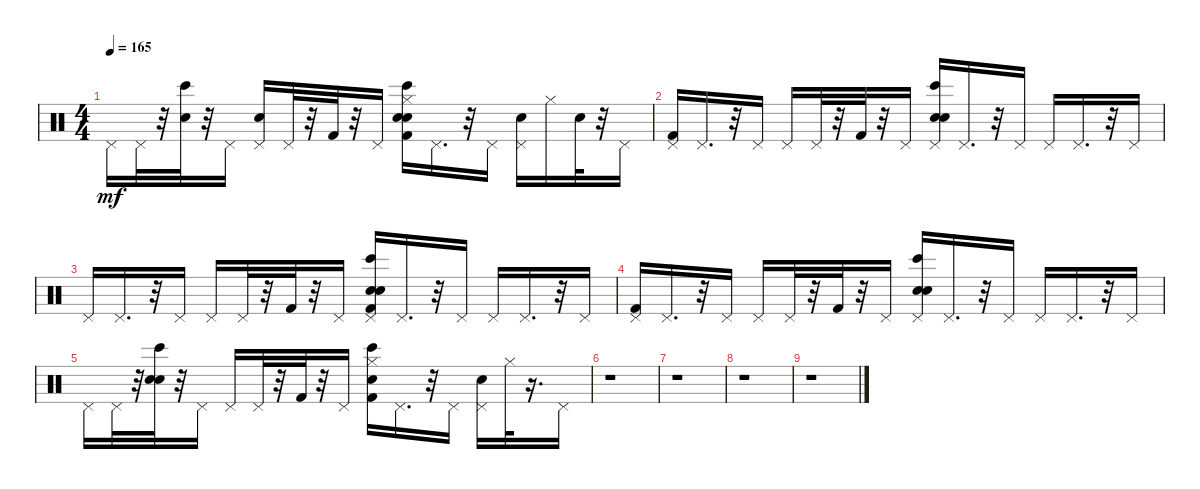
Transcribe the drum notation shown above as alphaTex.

\track (" " " ") {instrument percussion}
\staff {score}
\articulation defaults
\ts (4 4)
\tempo 165
\clef neutral
\ks c "Pedal Hi-Hat (hit)".16{dy mf} "Pedal Hi-Hat (hit)".32
r.32 ("Bongo High (hit)" "Hand Clap (hit)").32 r.32 "Pedal Hi-Hat (hit)".16 ("Electric Snare (hit)" "Pedal Hi-Hat (hit)").16 "Pedal Hi-Hat (hit)".32 r.32 "Kick (hit) 2".32 r.32 "Pedal Hi-Hat (hit)".16 ("Bongo High (hit)" "Kick (hit) 2" "Hand Clap (hit)" "Electric Snare (hit)" "Hi-Hat (closed)").16 "Pedal Hi-Hat (hit)".16{d} r.32 "Pedal Hi-Hat (hit)".16 ("Electric Snare (hit)" "Pedal Hi-Hat (hit)").16 "Hi-Hat (closed)".16 "Electric Snare (hit)".32 r.32 "Pedal Hi-Hat (hit)".16 |
("Kick (hit) 2" "Pedal Hi-Hat (hit)").16 "Pedal Hi-Hat (hit)".16{d} r.32 "Pedal Hi-Hat (hit)".16 "Pedal Hi-Hat (hit)".16 "Pedal Hi-Hat (hit)".32 r.32 "Kick (hit) 2".32 r.32 "Pedal Hi-Hat (hit)".16 ("Bongo High (hit)" "Hand Clap (hit)" "Electric Snare (hit)" "Pedal Hi-Hat (hit)").16 "Pedal Hi-Hat (hit)".16{d} r.32 "Pedal Hi-Hat (hit)".16 "Pedal Hi-Hat (hit)".16 "Pedal Hi-Hat (hit)".16{d} r.32 "Pedal Hi-Hat (hit)".16 |
"Pedal Hi-Hat (hit)".16 "Pedal Hi-Hat (hit)".16{d} r.32 "Pedal Hi-Hat (hit)".16 "Pedal Hi-Hat (hit)".16 "Pedal Hi-Hat (hit)".32 r.32 "Kick (hit) 2".32 r.32 "Pedal Hi-Hat (hit)".16 ("Bongo High (hit)" "Kick (hit) 2" "Hand Clap (hit)" "Electric Snare (hit)" "Pedal Hi-Hat (hit)").16 "Pedal Hi-Hat (hit)".16{d} r.32 "Pedal Hi-Hat (hit)".16 "Pedal Hi-Hat (hit)".16 "Pedal Hi-Hat (hit)".16{d} r.32 "Pedal Hi-Hat (hit)".16 |
("Kick (hit) 2" "Pedal Hi-Hat (hit)").16 "Pedal Hi-Hat (hit)".16{d} r.32 "Pedal Hi-Hat (hit)".16 "Pedal Hi-Hat (hit)".16 "Pedal Hi-Hat (hit)".32 r.32 "Kick (hit) 2".32 r.32 "Pedal Hi-Hat (hit)".16 ("Bongo High (hit)" "Hand Clap (hit)" "Electric Snare (hit)" "Pedal Hi-Hat (hit)").16 "Pedal Hi-Hat (hit)".16{d} r.32 "Pedal Hi-Hat (hit)".16 "Pedal Hi-Hat (hit)".16 "Pedal Hi-Hat (hit)".16{d} r.32 "Pedal Hi-Hat (hit)".16 |
"Pedal Hi-Hat (hit)".16 "Pedal Hi-Hat (hit)".32 r.32 ("Bongo High (hit)" "Hand Clap (hit)" "Electric Snare (hit)").32 r.32 "Pedal Hi-Hat (hit)".16 "Pedal Hi-Hat (hit)".16 "Pedal Hi-Hat (hit)".32 r.32 "Kick (hit) 2".32 r.32 "Pedal Hi-Hat (hit)".16 ("Bongo High (hit)" "Kick (hit) 2" "Hand Clap (hit)" "Hi-Hat (closed)").16 "Pedal Hi-Hat (hit)".16{d} r.32 "Pedal Hi-Hat (hit)".16 ("Electric Snare (hit)" "Pedal Hi-Hat (hit)").16 "Hi-Hat (closed)".32 r.16{d} "Pedal Hi-Hat (hit)".16 |
r.1 |
r.1 |
r.1 |
r.1
